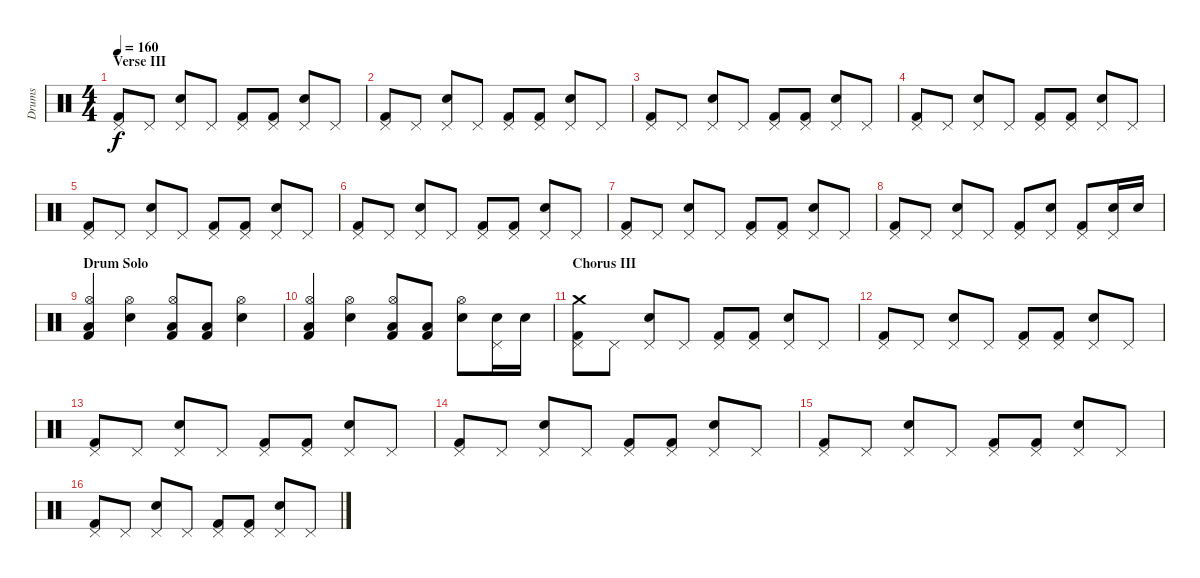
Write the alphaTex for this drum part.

\track ("Drums" "Drums") {instrument percussion}
\staff {score}
\articulation defaults
\ts (4 4)
\section ("" "Verse III")
\tempo 160
\clef neutral
\ks c
("Kick (hit) 2" "Pedal Hi-Hat (hit)").8{dy f} "Pedal Hi-Hat (hit)".8 ("Electric Snare (hit)" "Pedal Hi-Hat (hit)").8 "Pedal Hi-Hat (hit)".8 ("Kick (hit) 2" "Pedal Hi-Hat (hit)").8 ("Kick (hit) 2" "Pedal Hi-Hat (hit)").8 ("Electric Snare (hit)" "Pedal Hi-Hat (hit)").8 "Pedal Hi-Hat (hit)".8 |
("Kick (hit) 2" "Pedal Hi-Hat (hit)").8 "Pedal Hi-Hat (hit)".8 ("Electric Snare (hit)" "Pedal Hi-Hat (hit)").8 "Pedal Hi-Hat (hit)".8 ("Kick (hit) 2" "Pedal Hi-Hat (hit)").8 ("Kick (hit) 2" "Pedal Hi-Hat (hit)").8 ("Electric Snare (hit)" "Pedal Hi-Hat (hit)").8 "Pedal Hi-Hat (hit)".8 |
("Kick (hit) 2" "Pedal Hi-Hat (hit)").8 "Pedal Hi-Hat (hit)".8 ("Electric Snare (hit)" "Pedal Hi-Hat (hit)").8 "Pedal Hi-Hat (hit)".8 ("Kick (hit) 2" "Pedal Hi-Hat (hit)").8 ("Kick (hit) 2" "Pedal Hi-Hat (hit)").8 ("Electric Snare (hit)" "Pedal Hi-Hat (hit)").8 "Pedal Hi-Hat (hit)".8 |
("Kick (hit) 2" "Pedal Hi-Hat (hit)").8 "Pedal Hi-Hat (hit)".8 ("Electric Snare (hit)" "Pedal Hi-Hat (hit)").8 "Pedal Hi-Hat (hit)".8 ("Kick (hit) 2" "Pedal Hi-Hat (hit)").8 ("Kick (hit) 2" "Pedal Hi-Hat (hit)").8 ("Electric Snare (hit)" "Pedal Hi-Hat (hit)").8 "Pedal Hi-Hat (hit)".8 |
("Kick (hit) 2" "Pedal Hi-Hat (hit)").8 "Pedal Hi-Hat (hit)".8 ("Electric Snare (hit)" "Pedal Hi-Hat (hit)").8 "Pedal Hi-Hat (hit)".8 ("Kick (hit) 2" "Pedal Hi-Hat (hit)").8 ("Kick (hit) 2" "Pedal Hi-Hat (hit)").8 ("Electric Snare (hit)" "Pedal Hi-Hat (hit)").8 "Pedal Hi-Hat (hit)".8 |
("Kick (hit) 2" "Pedal Hi-Hat (hit)").8 "Pedal Hi-Hat (hit)".8 ("Electric Snare (hit)" "Pedal Hi-Hat (hit)").8 "Pedal Hi-Hat (hit)".8 ("Kick (hit) 2" "Pedal Hi-Hat (hit)").8 ("Kick (hit) 2" "Pedal Hi-Hat (hit)").8 ("Electric Snare (hit)" "Pedal Hi-Hat (hit)").8 "Pedal Hi-Hat (hit)".8 |
("Kick (hit) 2" "Pedal Hi-Hat (hit)").8 "Pedal Hi-Hat (hit)".8 ("Electric Snare (hit)" "Pedal Hi-Hat (hit)").8 "Pedal Hi-Hat (hit)".8 ("Kick (hit) 2" "Pedal Hi-Hat (hit)").8 ("Kick (hit) 2" "Pedal Hi-Hat (hit)").8 ("Electric Snare (hit)" "Pedal Hi-Hat (hit)").8 "Pedal Hi-Hat (hit)".8 |
("Kick (hit) 2" "Pedal Hi-Hat (hit)").8 "Pedal Hi-Hat (hit)".8 ("Electric Snare (hit)" "Pedal Hi-Hat (hit)").8 "Pedal Hi-Hat (hit)".8 ("Kick (hit) 2" "Pedal Hi-Hat (hit)").8 ("Pedal Hi-Hat (hit)" "Electric Snare (hit)").8 ("Kick (hit) 2" "Pedal Hi-Hat (hit)").8 ("Electric Snare (hit)" "Pedal Hi-Hat (hit)").16 "Electric Snare (hit)".16 |
\section ("" "Drum Solo")
("Hi-Hat (open)" "Kick (hit) 2" "Low Floor Tom (hit)").4 ("Electric Snare (hit)" "Hi-Hat (open)").4 ("Kick (hit) 2" "Low Floor Tom (hit)" "Hi-Hat (open)").8 ("Kick (hit) 2" "Low Floor Tom (hit)").8 ("Electric Snare (hit)" "Hi-Hat (open)").4 |
("Hi-Hat (open)" "Kick (hit) 2" "Low Floor Tom (hit)").4 ("Electric Snare (hit)" "Hi-Hat (open)").4 ("Kick (hit) 2" "Low Floor Tom (hit)" "Hi-Hat (open)").8 ("Kick (hit) 2" "Low Floor Tom (hit)").8 ("Electric Snare (hit)" "Hi-Hat (open)").8 ("Electric Snare (hit)" "Pedal Hi-Hat (hit)").16 "Electric Snare (hit)".16 |
\section ("" "Chorus III")
("Kick (hit) 2" "Pedal Hi-Hat (hit)" "Crash medium (hit)").8 "Pedal Hi-Hat (hit)".8 ("Electric Snare (hit)" "Pedal Hi-Hat (hit)").8 "Pedal Hi-Hat (hit)".8 ("Kick (hit) 2" "Pedal Hi-Hat (hit)").8 ("Kick (hit) 2" "Pedal Hi-Hat (hit)").8 ("Electric Snare (hit)" "Pedal Hi-Hat (hit)").8 "Pedal Hi-Hat (hit)".8 |
("Kick (hit) 2" "Pedal Hi-Hat (hit)").8 "Pedal Hi-Hat (hit)".8 ("Electric Snare (hit)" "Pedal Hi-Hat (hit)").8 "Pedal Hi-Hat (hit)".8 ("Kick (hit) 2" "Pedal Hi-Hat (hit)").8 ("Kick (hit) 2" "Pedal Hi-Hat (hit)").8 ("Electric Snare (hit)" "Pedal Hi-Hat (hit)").8 "Pedal Hi-Hat (hit)".8 |
("Kick (hit) 2" "Pedal Hi-Hat (hit)").8 "Pedal Hi-Hat (hit)".8 ("Electric Snare (hit)" "Pedal Hi-Hat (hit)").8 "Pedal Hi-Hat (hit)".8 ("Kick (hit) 2" "Pedal Hi-Hat (hit)").8 ("Kick (hit) 2" "Pedal Hi-Hat (hit)").8 ("Electric Snare (hit)" "Pedal Hi-Hat (hit)").8 "Pedal Hi-Hat (hit)".8 |
("Kick (hit) 2" "Pedal Hi-Hat (hit)").8 "Pedal Hi-Hat (hit)".8 ("Electric Snare (hit)" "Pedal Hi-Hat (hit)").8 "Pedal Hi-Hat (hit)".8 ("Kick (hit) 2" "Pedal Hi-Hat (hit)").8 ("Kick (hit) 2" "Pedal Hi-Hat (hit)").8 ("Electric Snare (hit)" "Pedal Hi-Hat (hit)").8 "Pedal Hi-Hat (hit)".8 |
("Kick (hit) 2" "Pedal Hi-Hat (hit)").8 "Pedal Hi-Hat (hit)".8 ("Electric Snare (hit)" "Pedal Hi-Hat (hit)").8 "Pedal Hi-Hat (hit)".8 ("Kick (hit) 2" "Pedal Hi-Hat (hit)").8 ("Kick (hit) 2" "Pedal Hi-Hat (hit)").8 ("Electric Snare (hit)" "Pedal Hi-Hat (hit)").8 "Pedal Hi-Hat (hit)".8 |
("Kick (hit) 2" "Pedal Hi-Hat (hit)").8 "Pedal Hi-Hat (hit)".8 ("Electric Snare (hit)" "Pedal Hi-Hat (hit)").8 "Pedal Hi-Hat (hit)".8 ("Kick (hit) 2" "Pedal Hi-Hat (hit)").8 ("Kick (hit) 2" "Pedal Hi-Hat (hit)").8 ("Electric Snare (hit)" "Pedal Hi-Hat (hit)").8 "Pedal Hi-Hat (hit)".8
